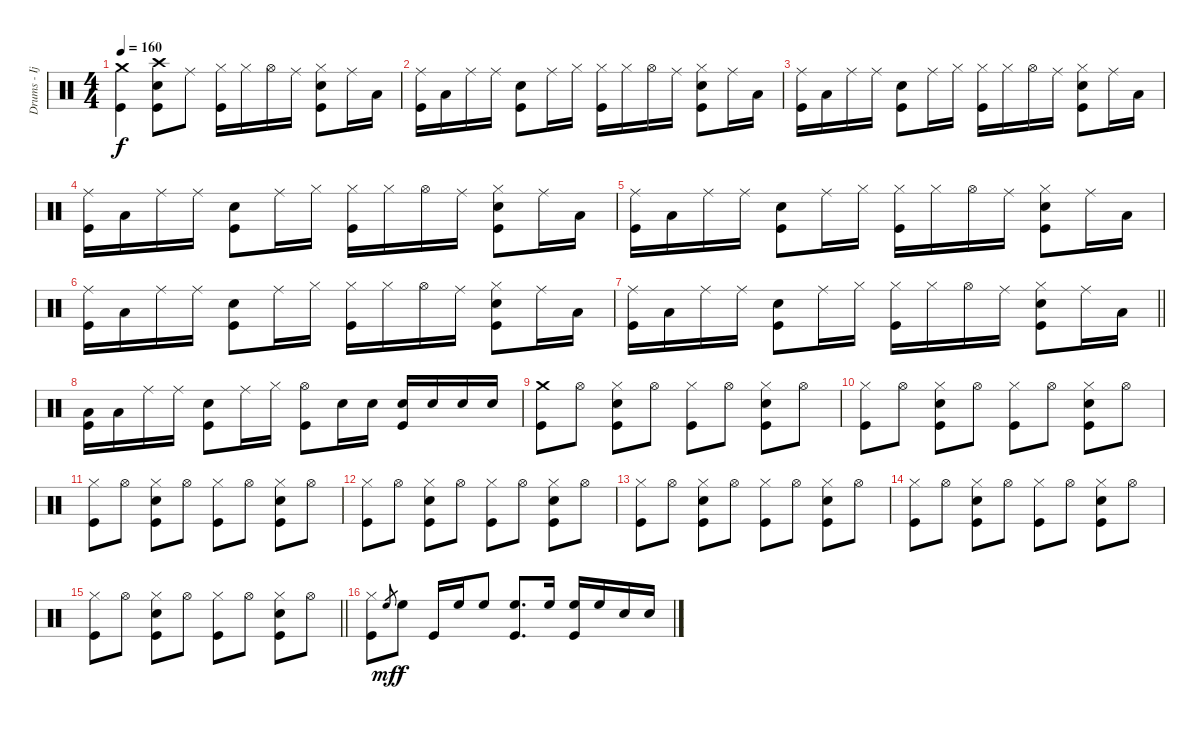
\track ("Drums - Ijichi" "Drums - Ij") {instrument percussion}
\staff {score}
\articulation defaults
\ts (4 4)
\tempo 160
\clef neutral
\ks c
("Crash medium (hit)" "Kick (hit)").4{dy f} ("Crash high (hit)" "Electric Snare (hit)" "Kick (hit)").8 "Ride (middle)".8 ("Hi-Hat (closed)" "Kick (hit)").16 "Hi-Hat (closed)".16 "Hi-Hat (open)".16 "Ride (middle)".16 ("Hi-Hat (closed)" "Electric Snare (hit)" "Kick (hit)").8 "Ride (middle)".16 "Low Tom (hit)".16 |
("Ride (middle)" "Kick (hit)").16 "Low Tom (hit)".16 "Ride (middle)".16 "Ride (middle)".16 ("Electric Snare (hit)" "Kick (hit)").8 "Ride (middle)".16 "Hi-Hat (closed)".16 ("Hi-Hat (closed)" "Kick (hit)").16 "Hi-Hat (closed)".16 "Hi-Hat (open)".16 "Ride (middle)".16 ("Hi-Hat (closed)" "Electric Snare (hit)" "Kick (hit)").8 "Ride (middle)".16 "Low Tom (hit)".16 |
("Ride (middle)" "Kick (hit)").16 "Low Tom (hit)".16 "Ride (middle)".16 "Ride (middle)".16 ("Electric Snare (hit)" "Kick (hit)").8 "Ride (middle)".16 "Hi-Hat (closed)".16 ("Hi-Hat (closed)" "Kick (hit)").16 "Hi-Hat (closed)".16 "Hi-Hat (open)".16 "Ride (middle)".16 ("Hi-Hat (closed)" "Electric Snare (hit)" "Kick (hit)").8 "Ride (middle)".16 "Low Tom (hit)".16 |
("Ride (middle)" "Kick (hit)").16 "Low Tom (hit)".16 "Ride (middle)".16 "Ride (middle)".16 ("Electric Snare (hit)" "Kick (hit)").8 "Ride (middle)".16 "Hi-Hat (closed)".16 ("Hi-Hat (closed)" "Kick (hit)").16 "Hi-Hat (closed)".16 "Hi-Hat (open)".16 "Ride (middle)".16 ("Hi-Hat (closed)" "Electric Snare (hit)" "Kick (hit)").8 "Ride (middle)".16 "Low Tom (hit)".16 |
("Ride (middle)" "Kick (hit)").16 "Low Tom (hit)".16 "Ride (middle)".16 "Ride (middle)".16 ("Electric Snare (hit)" "Kick (hit)").8 "Ride (middle)".16 "Hi-Hat (closed)".16 ("Hi-Hat (closed)" "Kick (hit)").16 "Hi-Hat (closed)".16 "Hi-Hat (open)".16 "Ride (middle)".16 ("Hi-Hat (closed)" "Electric Snare (hit)" "Kick (hit)").8 "Ride (middle)".16 "Low Tom (hit)".16 |
("Ride (middle)" "Kick (hit)").16 "Low Tom (hit)".16 "Ride (middle)".16 "Ride (middle)".16 ("Electric Snare (hit)" "Kick (hit)").8 "Ride (middle)".16 "Hi-Hat (closed)".16 ("Hi-Hat (closed)" "Kick (hit)").16 "Hi-Hat (closed)".16 "Hi-Hat (open)".16 "Ride (middle)".16 ("Hi-Hat (closed)" "Electric Snare (hit)" "Kick (hit)").8 "Ride (middle)".16 "Low Tom (hit)".16 |
\barLineRight lightlight
("Ride (middle)" "Kick (hit)").16 "Low Tom (hit)".16 "Ride (middle)".16 "Ride (middle)".16 ("Electric Snare (hit)" "Kick (hit)").8 "Ride (middle)".16 "Hi-Hat (closed)".16 ("Hi-Hat (closed)" "Kick (hit)").16 "Hi-Hat (closed)".16 "Hi-Hat (open)".16 "Ride (middle)".16 ("Hi-Hat (closed)" "Electric Snare (hit)" "Kick (hit)").8 "Ride (middle)".16 "Low Tom (hit)".16 |
("Low Tom (hit)" "Kick (hit)").16 "Low Tom (hit)".16 "Ride (middle)".16 "Ride (middle)".16 ("Electric Snare (hit)" "Kick (hit)").8 "Ride (middle)".16 "Hi-Hat (closed)".16 ("Hi-Hat (open)" "Kick (hit)").8 "Electric Snare (hit)".16 "Electric Snare (hit)".16 ("Electric Snare (hit)" "Kick (hit)").16 "Electric Snare (hit)".16 "Electric Snare (hit)".16 "Electric Snare (hit)".16 |
("Crash medium (hit)" "Kick (hit)").8 "Hi-Hat (open)".8 ("Hi-Hat (closed)" "Electric Snare (hit)" "Kick (hit)").8 "Hi-Hat (open)".8 ("Hi-Hat (closed)" "Kick (hit)").8 "Hi-Hat (open)".8 ("Hi-Hat (closed)" "Electric Snare (hit)" "Kick (hit)").8 "Hi-Hat (open)".8 |
("Hi-Hat (closed)" "Kick (hit)").8 "Hi-Hat (open)".8 ("Hi-Hat (closed)" "Electric Snare (hit)" "Kick (hit)").8 "Hi-Hat (open)".8 ("Hi-Hat (closed)" "Kick (hit)").8 "Hi-Hat (open)".8 ("Hi-Hat (closed)" "Electric Snare (hit)" "Kick (hit)").8 "Hi-Hat (open)".8 |
("Hi-Hat (closed)" "Kick (hit)").8 "Hi-Hat (open)".8 ("Hi-Hat (closed)" "Electric Snare (hit)" "Kick (hit)").8 "Hi-Hat (open)".8 ("Hi-Hat (closed)" "Kick (hit)").8 "Hi-Hat (open)".8 ("Hi-Hat (closed)" "Electric Snare (hit)" "Kick (hit)").8 "Hi-Hat (open)".8 |
("Hi-Hat (closed)" "Kick (hit)").8 "Hi-Hat (open)".8 ("Hi-Hat (closed)" "Electric Snare (hit)" "Kick (hit)").8 "Hi-Hat (open)".8 ("Hi-Hat (closed)" "Kick (hit)").8 "Hi-Hat (open)".8 ("Hi-Hat (closed)" "Electric Snare (hit)" "Kick (hit)").8 "Hi-Hat (open)".8 |
("Hi-Hat (closed)" "Kick (hit)").8 "Hi-Hat (open)".8 ("Hi-Hat (closed)" "Electric Snare (hit)" "Kick (hit)").8 "Hi-Hat (open)".8 ("Hi-Hat (closed)" "Kick (hit)").8 "Hi-Hat (open)".8 ("Hi-Hat (closed)" "Electric Snare (hit)" "Kick (hit)").8 "Hi-Hat (open)".8 |
("Hi-Hat (closed)" "Kick (hit)").8 "Hi-Hat (open)".8 ("Hi-Hat (closed)" "Electric Snare (hit)" "Kick (hit)").8 "Hi-Hat (open)".8 ("Hi-Hat (closed)" "Kick (hit)").8 "Hi-Hat (open)".8 ("Hi-Hat (closed)" "Electric Snare (hit)" "Kick (hit)").8 "Hi-Hat (open)".8 |
\barLineRight lightlight
("Hi-Hat (closed)" "Kick (hit)").8 "Hi-Hat (open)".8 ("Hi-Hat (closed)" "Electric Snare (hit)" "Kick (hit)").8 "Hi-Hat (open)".8 ("Hi-Hat (closed)" "Kick (hit)").8 "Hi-Hat (open)".8 ("Hi-Hat (closed)" "Electric Snare (hit)" "Kick (hit)").8 "Hi-Hat (open)".8 |
("Hi-Hat (closed)" "Kick (hit)").8 "High Floor Tom (hit)".8{gr dy mf} "High Floor Tom (hit)".8{dy f} "Kick (hit)".16 "High Floor Tom (hit)".16 "High Floor Tom (hit)".8 ("High Floor Tom (hit)" "Kick (hit)").8{d} "High Floor Tom (hit)".16 ("High Floor Tom (hit)" "Kick (hit)").16 "High Floor Tom (hit)".16 "Electric Snare (hit)".16 "Electric Snare (hit)".16
